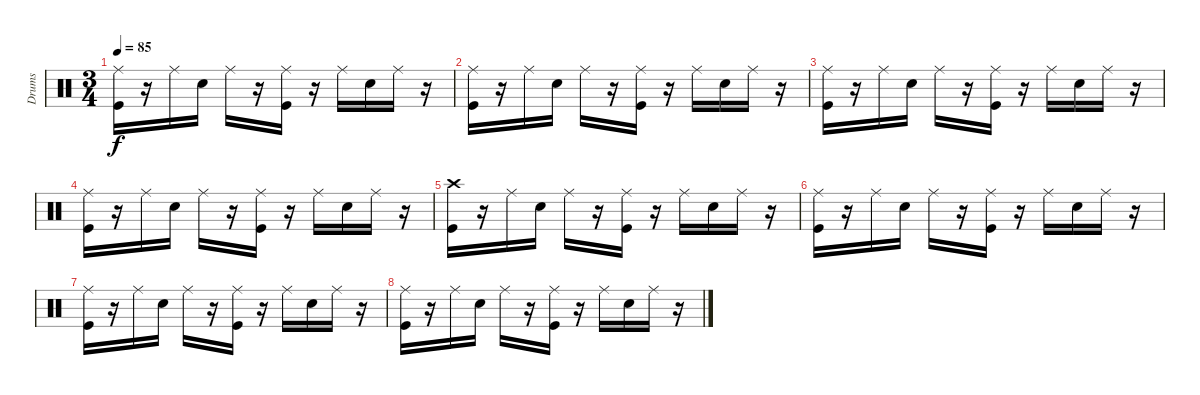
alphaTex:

\track ("Drums" "Drums") {instrument percussion}
\staff {score}
\articulation defaults
\ts (3 4)
\tempo 85
\clef neutral
\ks c
("Ride (middle)" "Kick (hit)").16{dy f} r.16 "Ride (middle)".16 "Electric Snare (hit)".16 "Ride (middle)".16 r.16 ("Ride (middle)" "Kick (hit)").16 r.16 "Ride (middle)".16 "Electric Snare (hit)".16 "Ride (middle)".16 r.16 |
("Ride (middle)" "Kick (hit)").16 r.16 "Ride (middle)".16 "Electric Snare (hit)".16 "Ride (middle)".16 r.16 ("Ride (middle)" "Kick (hit)").16 r.16 "Ride (middle)".16 "Electric Snare (hit)".16 "Ride (middle)".16 r.16 |
("Ride (middle)" "Kick (hit)").16 r.16 "Ride (middle)".16 "Electric Snare (hit)".16 "Ride (middle)".16 r.16 ("Ride (middle)" "Kick (hit)").16 r.16 "Ride (middle)".16 "Electric Snare (hit)".16 "Ride (middle)".16 r.16 |
("Ride (middle)" "Kick (hit)").16 r.16 "Ride (middle)".16 "Electric Snare (hit)".16 "Ride (middle)".16 r.16 ("Ride (middle)" "Kick (hit)").16 r.16 "Ride (middle)".16 "Electric Snare (hit)".16 "Ride (middle)".16 r.16 |
("Crash high (hit)" "Kick (hit)").16{volume 3} r.16 "Ride (middle)".16 "Electric Snare (hit)".16 "Ride (middle)".16 r.16 ("Ride (middle)" "Kick (hit)").16 r.16 "Ride (middle)".16 "Electric Snare (hit)".16 "Ride (middle)".16 r.16 |
("Ride (middle)" "Kick (hit)").16 r.16 "Ride (middle)".16 "Electric Snare (hit)".16 "Ride (middle)".16 r.16 ("Ride (middle)" "Kick (hit)").16 r.16 "Ride (middle)".16 "Electric Snare (hit)".16 "Ride (middle)".16 r.16 |
("Ride (middle)" "Kick (hit)").16 r.16 "Ride (middle)".16 "Electric Snare (hit)".16 "Ride (middle)".16 r.16 ("Ride (middle)" "Kick (hit)").16 r.16 "Ride (middle)".16 "Electric Snare (hit)".16 "Ride (middle)".16 r.16 |
("Ride (middle)" "Kick (hit)").16 r.16 "Ride (middle)".16 "Electric Snare (hit)".16 "Ride (middle)".16 r.16 ("Ride (middle)" "Kick (hit)").16 r.16 "Ride (middle)".16 "Electric Snare (hit)".16 "Ride (middle)".16 r.16
